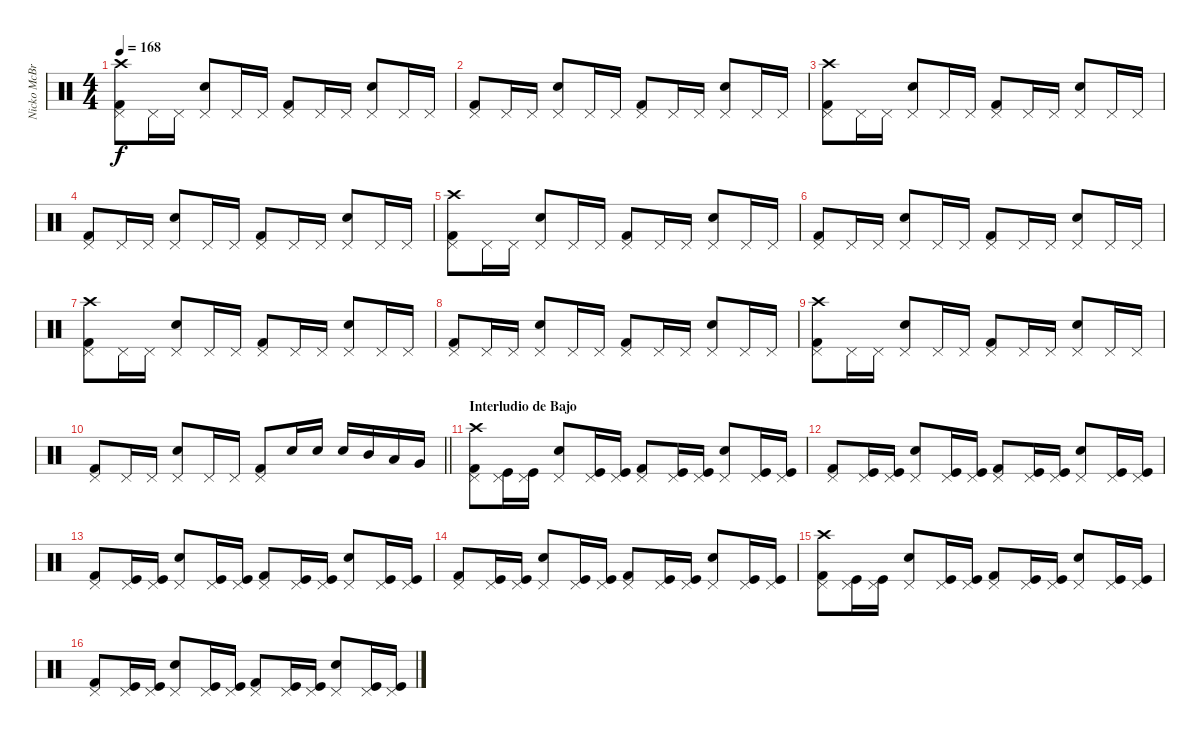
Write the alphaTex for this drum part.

\track ("Nicko McBrain" "Nicko McBr") {instrument percussion}
\staff {score}
\articulation defaults
\ts (4 4)
\tempo 168
\clef neutral
\ks c
("Kick (hit) 2" "Pedal Hi-Hat (hit)" "Crash high (hit)").8{dy f} "Pedal Hi-Hat (hit)".16 "Pedal Hi-Hat (hit)".16 ("Snare (hit) 2" "Pedal Hi-Hat (hit)").8 "Pedal Hi-Hat (hit)".16 "Pedal Hi-Hat (hit)".16 ("Kick (hit) 2" "Pedal Hi-Hat (hit)").8 "Pedal Hi-Hat (hit)".16 "Pedal Hi-Hat (hit)".16 ("Snare (hit) 2" "Pedal Hi-Hat (hit)").8 "Pedal Hi-Hat (hit)".16 "Pedal Hi-Hat (hit)".16 |
("Kick (hit) 2" "Pedal Hi-Hat (hit)").8 "Pedal Hi-Hat (hit)".16 "Pedal Hi-Hat (hit)".16 ("Snare (hit) 2" "Pedal Hi-Hat (hit)").8 "Pedal Hi-Hat (hit)".16 "Pedal Hi-Hat (hit)".16 ("Kick (hit) 2" "Pedal Hi-Hat (hit)").8 "Pedal Hi-Hat (hit)".16 "Pedal Hi-Hat (hit)".16 ("Snare (hit) 2" "Pedal Hi-Hat (hit)").8 "Pedal Hi-Hat (hit)".16 "Pedal Hi-Hat (hit)".16 |
("Kick (hit) 2" "Pedal Hi-Hat (hit)" "Crash high (hit)").8 "Pedal Hi-Hat (hit)".16 "Pedal Hi-Hat (hit)".16 ("Snare (hit) 2" "Pedal Hi-Hat (hit)").8 "Pedal Hi-Hat (hit)".16 "Pedal Hi-Hat (hit)".16 ("Kick (hit) 2" "Pedal Hi-Hat (hit)").8 "Pedal Hi-Hat (hit)".16 "Pedal Hi-Hat (hit)".16 ("Snare (hit) 2" "Pedal Hi-Hat (hit)").8 "Pedal Hi-Hat (hit)".16 "Pedal Hi-Hat (hit)".16 |
("Kick (hit) 2" "Pedal Hi-Hat (hit)").8 "Pedal Hi-Hat (hit)".16 "Pedal Hi-Hat (hit)".16 ("Snare (hit) 2" "Pedal Hi-Hat (hit)").8 "Pedal Hi-Hat (hit)".16 "Pedal Hi-Hat (hit)".16 ("Kick (hit) 2" "Pedal Hi-Hat (hit)").8 "Pedal Hi-Hat (hit)".16 "Pedal Hi-Hat (hit)".16 ("Snare (hit) 2" "Pedal Hi-Hat (hit)").8 "Pedal Hi-Hat (hit)".16 "Pedal Hi-Hat (hit)".16 |
("Kick (hit) 2" "Pedal Hi-Hat (hit)" "Crash high (hit)").8 "Pedal Hi-Hat (hit)".16 "Pedal Hi-Hat (hit)".16 ("Snare (hit) 2" "Pedal Hi-Hat (hit)").8 "Pedal Hi-Hat (hit)".16 "Pedal Hi-Hat (hit)".16 ("Kick (hit) 2" "Pedal Hi-Hat (hit)").8 "Pedal Hi-Hat (hit)".16 "Pedal Hi-Hat (hit)".16 ("Snare (hit) 2" "Pedal Hi-Hat (hit)").8 "Pedal Hi-Hat (hit)".16 "Pedal Hi-Hat (hit)".16 |
("Kick (hit) 2" "Pedal Hi-Hat (hit)").8 "Pedal Hi-Hat (hit)".16 "Pedal Hi-Hat (hit)".16 ("Snare (hit) 2" "Pedal Hi-Hat (hit)").8 "Pedal Hi-Hat (hit)".16 "Pedal Hi-Hat (hit)".16 ("Kick (hit) 2" "Pedal Hi-Hat (hit)").8 "Pedal Hi-Hat (hit)".16 "Pedal Hi-Hat (hit)".16 ("Snare (hit) 2" "Pedal Hi-Hat (hit)").8 "Pedal Hi-Hat (hit)".16 "Pedal Hi-Hat (hit)".16 |
("Kick (hit) 2" "Pedal Hi-Hat (hit)" "Crash high (hit)").8 "Pedal Hi-Hat (hit)".16 "Pedal Hi-Hat (hit)".16 ("Snare (hit) 2" "Pedal Hi-Hat (hit)").8 "Pedal Hi-Hat (hit)".16 "Pedal Hi-Hat (hit)".16 ("Kick (hit) 2" "Pedal Hi-Hat (hit)").8 "Pedal Hi-Hat (hit)".16 "Pedal Hi-Hat (hit)".16 ("Snare (hit) 2" "Pedal Hi-Hat (hit)").8 "Pedal Hi-Hat (hit)".16 "Pedal Hi-Hat (hit)".16 |
("Kick (hit) 2" "Pedal Hi-Hat (hit)").8 "Pedal Hi-Hat (hit)".16 "Pedal Hi-Hat (hit)".16 ("Snare (hit) 2" "Pedal Hi-Hat (hit)").8 "Pedal Hi-Hat (hit)".16 "Pedal Hi-Hat (hit)".16 ("Kick (hit) 2" "Pedal Hi-Hat (hit)").8 "Pedal Hi-Hat (hit)".16 "Pedal Hi-Hat (hit)".16 ("Snare (hit) 2" "Pedal Hi-Hat (hit)").8 "Pedal Hi-Hat (hit)".16 "Pedal Hi-Hat (hit)".16 |
("Kick (hit) 2" "Pedal Hi-Hat (hit)" "Crash high (hit)").8 "Pedal Hi-Hat (hit)".16 "Pedal Hi-Hat (hit)".16 ("Snare (hit) 2" "Pedal Hi-Hat (hit)").8 "Pedal Hi-Hat (hit)".16 "Pedal Hi-Hat (hit)".16 ("Kick (hit) 2" "Pedal Hi-Hat (hit)").8 "Pedal Hi-Hat (hit)".16 "Pedal Hi-Hat (hit)".16 ("Snare (hit) 2" "Pedal Hi-Hat (hit)").8 "Pedal Hi-Hat (hit)".16 "Pedal Hi-Hat (hit)".16 |
\barLineRight lightlight
("Kick (hit) 2" "Pedal Hi-Hat (hit)").8 "Pedal Hi-Hat (hit)".16 "Pedal Hi-Hat (hit)".16 ("Snare (hit) 2" "Pedal Hi-Hat (hit)").8 "Pedal Hi-Hat (hit)".16 "Pedal Hi-Hat (hit)".16 ("Kick (hit) 2" "Pedal Hi-Hat (hit)").8 "Snare (hit) 2".16 "Snare (hit) 2".16 "Snare (hit) 2".16 "Mid Tom (hit)".16 "Low Tom (hit)".16 "Very Low Tom (hit)".16 |
\section ("" "Interludio de Bajo")
("Kick (hit) 2" "Pedal Hi-Hat (hit)" "Crash high (hit)").8 ("Kick (hit)" "Pedal Hi-Hat (hit)").16 ("Kick (hit)" "Pedal Hi-Hat (hit)").16 ("Snare (hit) 2" "Pedal Hi-Hat (hit)").8 ("Kick (hit)" "Pedal Hi-Hat (hit)").16 ("Kick (hit)" "Pedal Hi-Hat (hit)").16 ("Kick (hit) 2" "Pedal Hi-Hat (hit)").8 ("Kick (hit)" "Pedal Hi-Hat (hit)").16 ("Kick (hit)" "Pedal Hi-Hat (hit)").16 ("Snare (hit) 2" "Pedal Hi-Hat (hit)").8 ("Kick (hit)" "Pedal Hi-Hat (hit)").16 ("Kick (hit)" "Pedal Hi-Hat (hit)").16 |
("Kick (hit) 2" "Pedal Hi-Hat (hit)").8 ("Kick (hit)" "Pedal Hi-Hat (hit)").16 ("Kick (hit)" "Pedal Hi-Hat (hit)").16 ("Snare (hit) 2" "Pedal Hi-Hat (hit)").8 ("Kick (hit)" "Pedal Hi-Hat (hit)").16 ("Kick (hit)" "Pedal Hi-Hat (hit)").16 ("Kick (hit) 2" "Pedal Hi-Hat (hit)").8 ("Kick (hit)" "Pedal Hi-Hat (hit)").16 ("Kick (hit)" "Pedal Hi-Hat (hit)").16 ("Snare (hit) 2" "Pedal Hi-Hat (hit)").8 ("Kick (hit)" "Pedal Hi-Hat (hit)").16 ("Kick (hit)" "Pedal Hi-Hat (hit)").16 |
("Kick (hit) 2" "Pedal Hi-Hat (hit)").8 ("Kick (hit)" "Pedal Hi-Hat (hit)").16 ("Kick (hit)" "Pedal Hi-Hat (hit)").16 ("Snare (hit) 2" "Pedal Hi-Hat (hit)").8 ("Kick (hit)" "Pedal Hi-Hat (hit)").16 ("Kick (hit)" "Pedal Hi-Hat (hit)").16 ("Kick (hit) 2" "Pedal Hi-Hat (hit)").8 ("Kick (hit)" "Pedal Hi-Hat (hit)").16 ("Kick (hit)" "Pedal Hi-Hat (hit)").16 ("Snare (hit) 2" "Pedal Hi-Hat (hit)").8 ("Kick (hit)" "Pedal Hi-Hat (hit)").16 ("Kick (hit)" "Pedal Hi-Hat (hit)").16 |
("Kick (hit) 2" "Pedal Hi-Hat (hit)").8 ("Kick (hit)" "Pedal Hi-Hat (hit)").16 ("Kick (hit)" "Pedal Hi-Hat (hit)").16 ("Snare (hit) 2" "Pedal Hi-Hat (hit)").8 ("Kick (hit)" "Pedal Hi-Hat (hit)").16 ("Kick (hit)" "Pedal Hi-Hat (hit)").16 ("Kick (hit) 2" "Pedal Hi-Hat (hit)").8 ("Kick (hit)" "Pedal Hi-Hat (hit)").16 ("Kick (hit)" "Pedal Hi-Hat (hit)").16 ("Snare (hit) 2" "Pedal Hi-Hat (hit)").8 ("Kick (hit)" "Pedal Hi-Hat (hit)").16 ("Kick (hit)" "Pedal Hi-Hat (hit)").16 |
("Kick (hit) 2" "Pedal Hi-Hat (hit)" "Crash high (hit)").8 ("Kick (hit)" "Pedal Hi-Hat (hit)").16 ("Kick (hit)" "Pedal Hi-Hat (hit)").16 ("Snare (hit) 2" "Pedal Hi-Hat (hit)").8 ("Kick (hit)" "Pedal Hi-Hat (hit)").16 ("Kick (hit)" "Pedal Hi-Hat (hit)").16 ("Kick (hit) 2" "Pedal Hi-Hat (hit)").8 ("Kick (hit)" "Pedal Hi-Hat (hit)").16 ("Kick (hit)" "Pedal Hi-Hat (hit)").16 ("Snare (hit) 2" "Pedal Hi-Hat (hit)").8 ("Kick (hit)" "Pedal Hi-Hat (hit)").16 ("Kick (hit)" "Pedal Hi-Hat (hit)").16 |
("Kick (hit) 2" "Pedal Hi-Hat (hit)").8 ("Kick (hit)" "Pedal Hi-Hat (hit)").16 ("Kick (hit)" "Pedal Hi-Hat (hit)").16 ("Snare (hit) 2" "Pedal Hi-Hat (hit)").8 ("Kick (hit)" "Pedal Hi-Hat (hit)").16 ("Kick (hit)" "Pedal Hi-Hat (hit)").16 ("Kick (hit) 2" "Pedal Hi-Hat (hit)").8 ("Kick (hit)" "Pedal Hi-Hat (hit)").16 ("Kick (hit)" "Pedal Hi-Hat (hit)").16 ("Snare (hit) 2" "Pedal Hi-Hat (hit)").8 ("Kick (hit)" "Pedal Hi-Hat (hit)").16 ("Kick (hit)" "Pedal Hi-Hat (hit)").16
